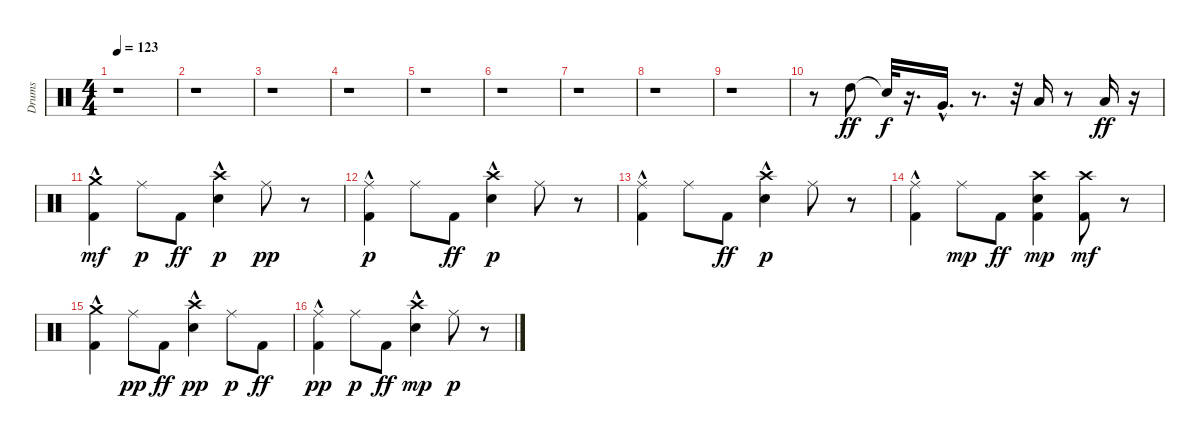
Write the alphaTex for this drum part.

\track ("Drums" "Drums") {instrument percussion}
\staff {score}
\articulation defaults
\ts (4 4)
\tempo 123
\clef neutral
\ks c
r.1{dy f} |
r.1 |
r.1 |
r.1 |
r.1 |
r.1 |
r.1 |
r.1 |
r.1 |
r.8 "High Tom (hit)".8{dy ff} "Snare (hit)"{t}.32{dy f} r.16{d} "Very Low Tom (hit)"{hac}.16{d} r.8{d} r.32 "Low Floor Tom (hit)".16 r.8 "Low Floor Tom (hit)".16{dy ff} r.16 |
("Kick (hit) 2"{hac} "Crash medium (hit)").4{dy mf} "Ride (middle)".8{dy p} "Kick (hit) 2".8{dy ff} ("Electric Snare (hit)"{hac} "Crash high (hit)").4{dy p} "Ride (middle)".8{dy pp} r.8 |
("Kick (hit) 2"{hac} "Ride (middle)").4{dy p} "Ride (middle)".8 "Kick (hit) 2".8{dy ff} ("Electric Snare (hit)"{hac} "Crash high (hit)").4{dy p} "Ride (middle)".8 r.8 |
("Kick (hit) 2"{hac} "Ride (middle)").4 "Ride (middle)".8 "Kick (hit) 2".8{dy ff} ("Electric Snare (hit)"{hac} "Crash high (hit)").4{dy p} "Ride (middle)".8 r.8 |
("Kick (hit) 2"{hac} "Ride (middle)").4 "Ride (middle)".8{dy mp} "Kick (hit) 2".8{dy ff} ("Kick (hit) 2" "Electric Snare (hit)" "Crash high (hit)").4{dy mp} ("Kick (hit) 2" "Crash high (hit)").8{dy mf} r.8 |
("Kick (hit) 2"{hac} "Crash medium (hit)").4 "Ride (middle)".8{dy pp} "Kick (hit) 2".8{dy ff} ("Electric Snare (hit)"{hac} "Crash high (hit)").4{dy pp} "Ride (middle)".8{dy p} "Kick (hit) 2".8{dy ff} |
("Kick (hit) 2"{hac} "Ride (middle)").4{dy pp} "Ride (middle)".8{dy p} "Kick (hit) 2".8{dy ff} ("Electric Snare (hit)"{hac} "Crash high (hit)").4{dy mp} "Ride (middle)".8{dy p} r.8
